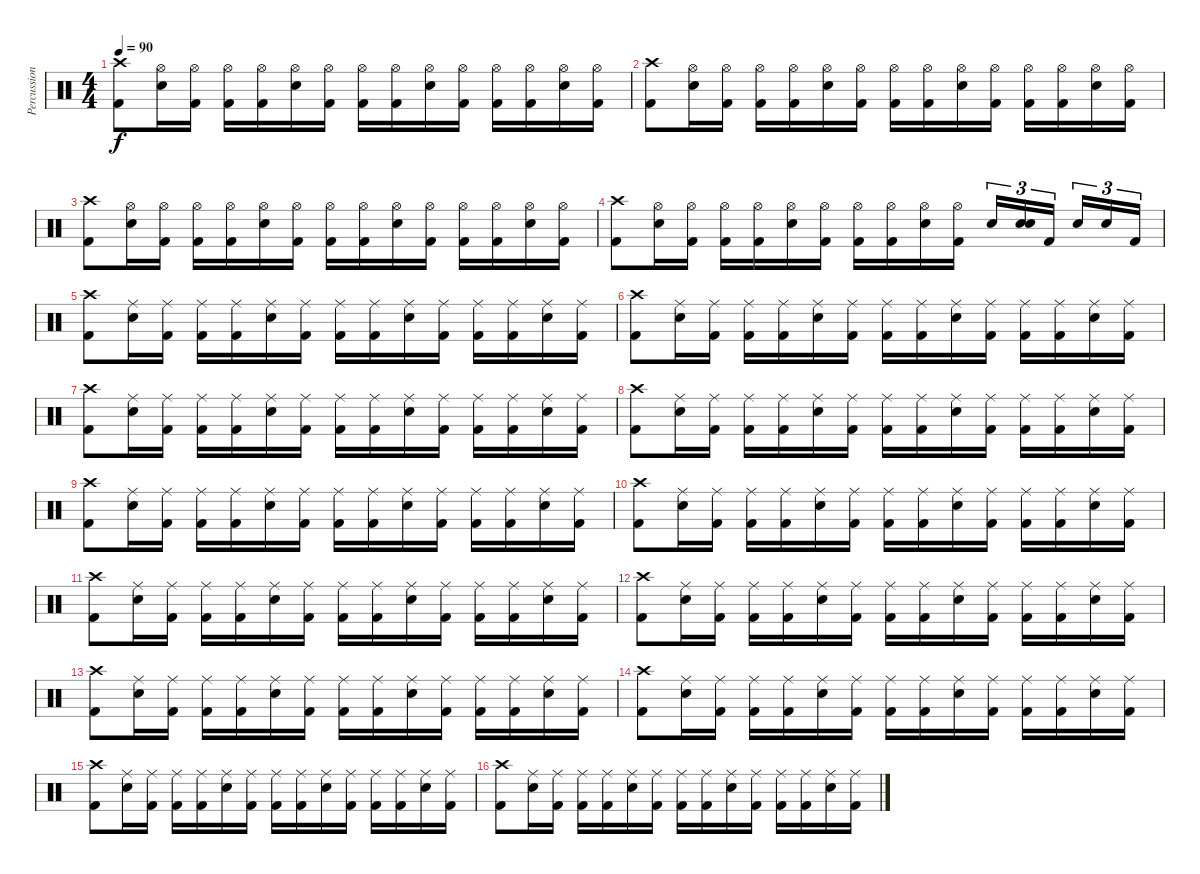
\track ("Percussions" "Percussion") {instrument percussion}
\staff {score}
\articulation defaults
\ts (4 4)
\tempo 90
\clef neutral
\ks c
("Crash high (hit)" "Kick (hit) 2").8{dy f} ("Hi-Hat (open)" "Snare (hit) 2").16 ("Hi-Hat (open)" "Kick (hit) 2").16 ("Hi-Hat (open)" "Kick (hit) 2").16 ("Hi-Hat (open)" "Kick (hit) 2").16 ("Hi-Hat (open)" "Snare (hit) 2").16 ("Hi-Hat (open)" "Kick (hit) 2").16 ("Hi-Hat (open)" "Kick (hit) 2").16 ("Hi-Hat (open)" "Kick (hit) 2").16 ("Hi-Hat (open)" "Snare (hit) 2").16 ("Hi-Hat (open)" "Kick (hit) 2").16 ("Hi-Hat (open)" "Kick (hit) 2").16 ("Hi-Hat (open)" "Kick (hit) 2").16 ("Hi-Hat (open)" "Snare (hit) 2").16 ("Hi-Hat (open)" "Kick (hit) 2").16 |
("Crash high (hit)" "Kick (hit) 2").8 ("Hi-Hat (open)" "Snare (hit) 2").16 ("Hi-Hat (open)" "Kick (hit) 2").16 ("Hi-Hat (open)" "Kick (hit) 2").16 ("Hi-Hat (open)" "Kick (hit) 2").16 ("Hi-Hat (open)" "Snare (hit) 2").16 ("Hi-Hat (open)" "Kick (hit) 2").16 ("Hi-Hat (open)" "Kick (hit) 2").16 ("Hi-Hat (open)" "Kick (hit) 2").16 ("Hi-Hat (open)" "Snare (hit) 2").16 ("Hi-Hat (open)" "Kick (hit) 2").16 ("Hi-Hat (open)" "Kick (hit) 2").16 ("Hi-Hat (open)" "Kick (hit) 2").16 ("Hi-Hat (open)" "Snare (hit) 2").16 ("Hi-Hat (open)" "Kick (hit) 2").16 |
("Crash high (hit)" "Kick (hit) 2").8 ("Hi-Hat (open)" "Snare (hit) 2").16 ("Hi-Hat (open)" "Kick (hit) 2").16 ("Hi-Hat (open)" "Kick (hit) 2").16 ("Hi-Hat (open)" "Kick (hit) 2").16 ("Hi-Hat (open)" "Snare (hit) 2").16 ("Hi-Hat (open)" "Kick (hit) 2").16 ("Hi-Hat (open)" "Kick (hit) 2").16 ("Hi-Hat (open)" "Kick (hit) 2").16 ("Hi-Hat (open)" "Snare (hit) 2").16 ("Hi-Hat (open)" "Kick (hit) 2").16 ("Hi-Hat (open)" "Kick (hit) 2").16 ("Hi-Hat (open)" "Kick (hit) 2").16 ("Hi-Hat (open)" "Snare (hit) 2").16 ("Hi-Hat (open)" "Kick (hit) 2").16 |
("Crash high (hit)" "Kick (hit) 2").8 ("Hi-Hat (open)" "Snare (hit) 2").16 ("Hi-Hat (open)" "Kick (hit) 2").16 ("Hi-Hat (open)" "Kick (hit) 2").16 ("Hi-Hat (open)" "Kick (hit) 2").16 ("Hi-Hat (open)" "Snare (hit) 2").16 ("Hi-Hat (open)" "Kick (hit) 2").16 ("Hi-Hat (open)" "Kick (hit) 2").16 ("Hi-Hat (open)" "Kick (hit) 2").16 ("Hi-Hat (open)" "Snare (hit) 2").16 ("Hi-Hat (open)" "Kick (hit) 2").16 "Snare (hit) 2".16{tu (3 2)} ("Snare (hit) 2" "Snare (hit) 2").16{tu (3 2)} "Kick (hit) 2".16{tu (3 2)} "Snare (hit) 2".16{tu (3 2)} "Snare (hit) 2".16{tu (3 2)} "Kick (hit) 2".16{tu (3 2)} |
("Crash high (hit)" "Kick (hit) 2").8 ("Ride (middle)" "Snare (hit) 2").16 ("Ride (middle)" "Kick (hit) 2").16 ("Ride (middle)" "Kick (hit) 2").16 ("Ride (middle)" "Kick (hit) 2").16 ("Ride (middle)" "Snare (hit) 2").16 ("Ride (middle)" "Kick (hit) 2").16 ("Ride (middle)" "Kick (hit) 2").16 ("Ride (middle)" "Kick (hit) 2").16 ("Ride (middle)" "Snare (hit) 2").16 ("Ride (middle)" "Kick (hit) 2").16 ("Ride (middle)" "Kick (hit) 2").16 ("Ride (middle)" "Kick (hit) 2").16 ("Ride (middle)" "Snare (hit) 2").16 ("Ride (middle)" "Kick (hit) 2").16 |
("Crash high (hit)" "Kick (hit) 2").8 ("Ride (middle)" "Snare (hit) 2").16 ("Ride (middle)" "Kick (hit) 2").16 ("Ride (middle)" "Kick (hit) 2").16 ("Ride (middle)" "Kick (hit) 2").16 ("Ride (middle)" "Snare (hit) 2").16 ("Ride (middle)" "Kick (hit) 2").16 ("Ride (middle)" "Kick (hit) 2").16 ("Ride (middle)" "Kick (hit) 2").16 ("Ride (middle)" "Snare (hit) 2").16 ("Ride (middle)" "Kick (hit) 2").16 ("Ride (middle)" "Kick (hit) 2").16 ("Ride (middle)" "Kick (hit) 2").16 ("Ride (middle)" "Snare (hit) 2").16 ("Ride (middle)" "Kick (hit) 2").16 |
("Crash high (hit)" "Kick (hit) 2").8 ("Ride (middle)" "Snare (hit) 2").16 ("Ride (middle)" "Kick (hit) 2").16 ("Ride (middle)" "Kick (hit) 2").16 ("Ride (middle)" "Kick (hit) 2").16 ("Ride (middle)" "Snare (hit) 2").16 ("Ride (middle)" "Kick (hit) 2").16 ("Ride (middle)" "Kick (hit) 2").16 ("Ride (middle)" "Kick (hit) 2").16 ("Ride (middle)" "Snare (hit) 2").16 ("Ride (middle)" "Kick (hit) 2").16 ("Ride (middle)" "Kick (hit) 2").16 ("Ride (middle)" "Kick (hit) 2").16 ("Ride (middle)" "Snare (hit) 2").16 ("Ride (middle)" "Kick (hit) 2").16 |
("Crash high (hit)" "Kick (hit) 2").8 ("Ride (middle)" "Snare (hit) 2").16 ("Ride (middle)" "Kick (hit) 2").16 ("Ride (middle)" "Kick (hit) 2").16 ("Ride (middle)" "Kick (hit) 2").16 ("Ride (middle)" "Snare (hit) 2").16 ("Ride (middle)" "Kick (hit) 2").16 ("Ride (middle)" "Kick (hit) 2").16 ("Ride (middle)" "Kick (hit) 2").16 ("Ride (middle)" "Snare (hit) 2").16 ("Ride (middle)" "Kick (hit) 2").16 ("Ride (middle)" "Kick (hit) 2").16 ("Ride (middle)" "Kick (hit) 2").16 ("Ride (middle)" "Snare (hit) 2").16 ("Ride (middle)" "Kick (hit) 2").16 |
("Crash high (hit)" "Kick (hit) 2").8 ("Ride (middle)" "Snare (hit) 2").16 ("Ride (middle)" "Kick (hit) 2").16 ("Ride (middle)" "Kick (hit) 2").16 ("Ride (middle)" "Kick (hit) 2").16 ("Ride (middle)" "Snare (hit) 2").16 ("Ride (middle)" "Kick (hit) 2").16 ("Ride (middle)" "Kick (hit) 2").16 ("Ride (middle)" "Kick (hit) 2").16 ("Ride (middle)" "Snare (hit) 2").16 ("Ride (middle)" "Kick (hit) 2").16 ("Ride (middle)" "Kick (hit) 2").16 ("Ride (middle)" "Kick (hit) 2").16 ("Ride (middle)" "Snare (hit) 2").16 ("Ride (middle)" "Kick (hit) 2").16 |
("Crash high (hit)" "Kick (hit) 2").8 ("Ride (middle)" "Snare (hit) 2").16 ("Ride (middle)" "Kick (hit) 2").16 ("Ride (middle)" "Kick (hit) 2").16 ("Ride (middle)" "Kick (hit) 2").16 ("Ride (middle)" "Snare (hit) 2").16 ("Ride (middle)" "Kick (hit) 2").16 ("Ride (middle)" "Kick (hit) 2").16 ("Ride (middle)" "Kick (hit) 2").16 ("Ride (middle)" "Snare (hit) 2").16 ("Ride (middle)" "Kick (hit) 2").16 ("Ride (middle)" "Kick (hit) 2").16 ("Ride (middle)" "Kick (hit) 2").16 ("Ride (middle)" "Snare (hit) 2").16 ("Ride (middle)" "Kick (hit) 2").16 |
("Crash high (hit)" "Kick (hit) 2").8 ("Ride (middle)" "Snare (hit) 2").16 ("Ride (middle)" "Kick (hit) 2").16 ("Ride (middle)" "Kick (hit) 2").16 ("Ride (middle)" "Kick (hit) 2").16 ("Ride (middle)" "Snare (hit) 2").16 ("Ride (middle)" "Kick (hit) 2").16 ("Ride (middle)" "Kick (hit) 2").16 ("Ride (middle)" "Kick (hit) 2").16 ("Ride (middle)" "Snare (hit) 2").16 ("Ride (middle)" "Kick (hit) 2").16 ("Ride (middle)" "Kick (hit) 2").16 ("Ride (middle)" "Kick (hit) 2").16 ("Ride (middle)" "Snare (hit) 2").16 ("Ride (middle)" "Kick (hit) 2").16 |
("Crash high (hit)" "Kick (hit) 2").8 ("Ride (middle)" "Snare (hit) 2").16 ("Ride (middle)" "Kick (hit) 2").16 ("Ride (middle)" "Kick (hit) 2").16 ("Ride (middle)" "Kick (hit) 2").16 ("Ride (middle)" "Snare (hit) 2").16 ("Ride (middle)" "Kick (hit) 2").16 ("Ride (middle)" "Kick (hit) 2").16 ("Ride (middle)" "Kick (hit) 2").16 ("Ride (middle)" "Snare (hit) 2").16 ("Ride (middle)" "Kick (hit) 2").16 ("Ride (middle)" "Kick (hit) 2").16 ("Ride (middle)" "Kick (hit) 2").16 ("Ride (middle)" "Snare (hit) 2").16 ("Ride (middle)" "Kick (hit) 2").16 |
("Crash high (hit)" "Kick (hit) 2").8 ("Ride (middle)" "Snare (hit) 2").16 ("Ride (middle)" "Kick (hit) 2").16 ("Ride (middle)" "Kick (hit) 2").16 ("Ride (middle)" "Kick (hit) 2").16 ("Ride (middle)" "Snare (hit) 2").16 ("Ride (middle)" "Kick (hit) 2").16 ("Ride (middle)" "Kick (hit) 2").16 ("Ride (middle)" "Kick (hit) 2").16 ("Ride (middle)" "Snare (hit) 2").16 ("Ride (middle)" "Kick (hit) 2").16 ("Ride (middle)" "Kick (hit) 2").16 ("Ride (middle)" "Kick (hit) 2").16 ("Ride (middle)" "Snare (hit) 2").16 ("Ride (middle)" "Kick (hit) 2").16 |
("Crash high (hit)" "Kick (hit) 2").8 ("Ride (middle)" "Snare (hit) 2").16 ("Ride (middle)" "Kick (hit) 2").16 ("Ride (middle)" "Kick (hit) 2").16 ("Ride (middle)" "Kick (hit) 2").16 ("Ride (middle)" "Snare (hit) 2").16 ("Ride (middle)" "Kick (hit) 2").16 ("Ride (middle)" "Kick (hit) 2").16 ("Ride (middle)" "Kick (hit) 2").16 ("Ride (middle)" "Snare (hit) 2").16 ("Ride (middle)" "Kick (hit) 2").16 ("Ride (middle)" "Kick (hit) 2").16 ("Ride (middle)" "Kick (hit) 2").16 ("Ride (middle)" "Snare (hit) 2").16 ("Ride (middle)" "Kick (hit) 2").16 |
("Crash high (hit)" "Kick (hit) 2").8 ("Ride (middle)" "Snare (hit) 2").16 ("Ride (middle)" "Kick (hit) 2").16 ("Ride (middle)" "Kick (hit) 2").16 ("Ride (middle)" "Kick (hit) 2").16 ("Ride (middle)" "Snare (hit) 2").16 ("Ride (middle)" "Kick (hit) 2").16 ("Ride (middle)" "Kick (hit) 2").16 ("Ride (middle)" "Kick (hit) 2").16 ("Ride (middle)" "Snare (hit) 2").16 ("Ride (middle)" "Kick (hit) 2").16 ("Ride (middle)" "Kick (hit) 2").16 ("Ride (middle)" "Kick (hit) 2").16 ("Ride (middle)" "Snare (hit) 2").16 ("Ride (middle)" "Kick (hit) 2").16 |
("Crash high (hit)" "Kick (hit) 2").8 ("Ride (middle)" "Snare (hit) 2").16 ("Ride (middle)" "Kick (hit) 2").16 ("Ride (middle)" "Kick (hit) 2").16 ("Ride (middle)" "Kick (hit) 2").16 ("Ride (middle)" "Snare (hit) 2").16 ("Ride (middle)" "Kick (hit) 2").16 ("Ride (middle)" "Kick (hit) 2").16 ("Ride (middle)" "Kick (hit) 2").16 ("Ride (middle)" "Snare (hit) 2").16 ("Ride (middle)" "Kick (hit) 2").16 ("Ride (middle)" "Kick (hit) 2").16 ("Ride (middle)" "Kick (hit) 2").16 ("Ride (middle)" "Snare (hit) 2").16 ("Ride (middle)" "Kick (hit) 2").16
